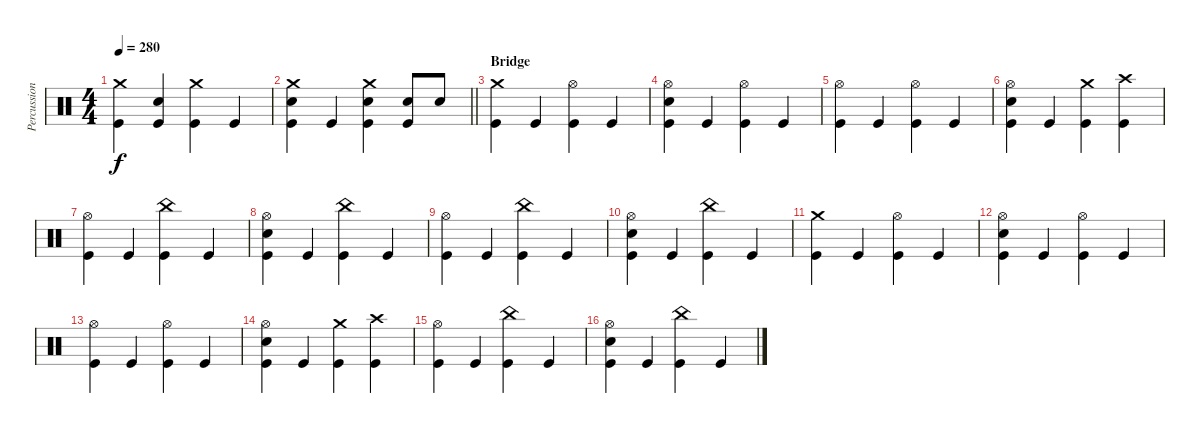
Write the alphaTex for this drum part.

\track ("Percussion" "Percussion") {instrument percussion}
\staff {score}
\articulation defaults
\ts (4 4)
\tempo 280
\clef neutral
\ks c
("Crash medium (hit)" "Kick (hit)").4{dy f} ("Electric Snare (hit)" "Kick (hit)").4 ("Crash medium (hit)" "Kick (hit)").4 "Kick (hit)".4 |
\barLineRight lightlight
("Crash medium (hit)" "Electric Snare (hit)" "Kick (hit)").4 "Kick (hit)".4 ("Crash medium (hit)" "Electric Snare (hit)" "Kick (hit)").4 ("Electric Snare (hit)" "Kick (hit)").8 "Electric Snare (hit)".8 |
\section ("" "Bridge")
("Crash medium (hit)" "Kick (hit)").4 "Kick (hit)".4 ("Hi-Hat (open)" "Kick (hit)").4 "Kick (hit)".4 |
("Hi-Hat (open)" "Electric Snare (hit)" "Kick (hit)").4 "Kick (hit)".4 ("Hi-Hat (open)" "Kick (hit)").4 "Kick (hit)".4 |
("Hi-Hat (open)" "Kick (hit)").4 "Kick (hit)".4 ("Hi-Hat (open)" "Kick (hit)").4 "Kick (hit)".4 |
("Hi-Hat (open)" "Electric Snare (hit)" "Kick (hit)").4 "Kick (hit)".4 ("Crash medium (hit)" "Kick (hit)").4 ("Crash high (hit)" "Kick (hit)").4 |
("Hi-Hat (open)" "Kick (hit)").4 "Kick (hit)".4 ("China (hit)" "Kick (hit)").4 "Kick (hit)".4 |
("Hi-Hat (open)" "Electric Snare (hit)" "Kick (hit)").4 "Kick (hit)".4 ("China (hit)" "Kick (hit)").4 "Kick (hit)".4 |
("Hi-Hat (open)" "Kick (hit)").4 "Kick (hit)".4 ("China (hit)" "Kick (hit)").4 "Kick (hit)".4 |
("Hi-Hat (open)" "Electric Snare (hit)" "Kick (hit)").4 "Kick (hit)".4 ("China (hit)" "Kick (hit)").4 "Kick (hit)".4 |
("Crash medium (hit)" "Kick (hit)").4 "Kick (hit)".4 ("Hi-Hat (open)" "Kick (hit)").4 "Kick (hit)".4 |
("Hi-Hat (open)" "Electric Snare (hit)" "Kick (hit)").4 "Kick (hit)".4 ("Hi-Hat (open)" "Kick (hit)").4 "Kick (hit)".4 |
("Hi-Hat (open)" "Kick (hit)").4 "Kick (hit)".4 ("Hi-Hat (open)" "Kick (hit)").4 "Kick (hit)".4 |
("Hi-Hat (open)" "Electric Snare (hit)" "Kick (hit)").4 "Kick (hit)".4 ("Crash medium (hit)" "Kick (hit)").4 ("Crash high (hit)" "Kick (hit)").4 |
("Hi-Hat (open)" "Kick (hit)").4 "Kick (hit)".4 ("China (hit)" "Kick (hit)").4 "Kick (hit)".4 |
("Hi-Hat (open)" "Electric Snare (hit)" "Kick (hit)").4 "Kick (hit)".4 ("China (hit)" "Kick (hit)").4 "Kick (hit)".4
